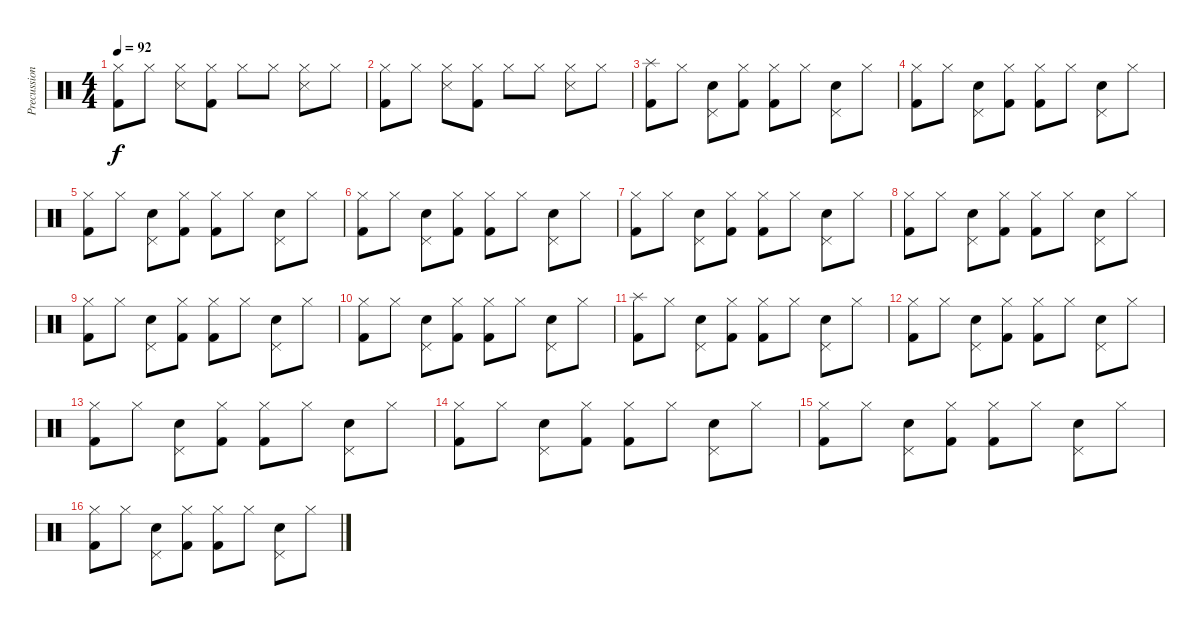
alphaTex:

\track ("Precussion" "Precussion") {instrument percussion}
\staff {score}
\articulation defaults
\ts (4 4)
\tempo 92
\clef neutral
\ks c
("Hi-Hat (closed)" "Kick (hit) 2").8{dy f} "Hi-Hat (closed)".8 ("Hi-Hat (closed)" "Snare (side stick) 3").8 ("Hi-Hat (closed)" "Kick (hit) 2").8 "Hi-Hat (closed)".8 "Hi-Hat (closed)".8 ("Hi-Hat (closed)" "Snare (side stick) 3").8 "Hi-Hat (closed)".8 |
("Hi-Hat (closed)" "Kick (hit) 2").8 "Hi-Hat (closed)".8 ("Hi-Hat (closed)" "Snare (side stick) 3").8 ("Hi-Hat (closed)" "Kick (hit) 2").8 "Hi-Hat (closed)".8 "Hi-Hat (closed)".8 ("Hi-Hat (closed)" "Snare (side stick) 3").8 "Hi-Hat (closed)".8 |
("Splash (hit)" "Kick (hit) 2").8 "Hi-Hat (closed)".8 ("Pedal Hi-Hat (hit)" "Snare (hit) 2").8 ("Hi-Hat (closed)" "Kick (hit) 2").8 ("Hi-Hat (closed)" "Kick (hit) 2").8 "Hi-Hat (closed)".8 ("Pedal Hi-Hat (hit)" "Snare (hit) 2").8 "Hi-Hat (closed)".8 |
("Hi-Hat (closed)" "Kick (hit) 2").8 "Hi-Hat (closed)".8 ("Pedal Hi-Hat (hit)" "Snare (hit) 2").8 ("Hi-Hat (closed)" "Kick (hit) 2").8 ("Hi-Hat (closed)" "Kick (hit) 2").8 "Hi-Hat (closed)".8 ("Pedal Hi-Hat (hit)" "Snare (hit) 2").8 "Hi-Hat (closed)".8 |
("Hi-Hat (closed)" "Kick (hit) 2").8 "Hi-Hat (closed)".8 ("Pedal Hi-Hat (hit)" "Snare (hit) 2").8 ("Hi-Hat (closed)" "Kick (hit) 2").8 ("Hi-Hat (closed)" "Kick (hit) 2").8 "Hi-Hat (closed)".8 ("Pedal Hi-Hat (hit)" "Snare (hit) 2").8 "Hi-Hat (closed)".8 |
("Hi-Hat (closed)" "Kick (hit) 2").8 "Hi-Hat (closed)".8 ("Pedal Hi-Hat (hit)" "Snare (hit) 2").8 ("Hi-Hat (closed)" "Kick (hit) 2").8 ("Hi-Hat (closed)" "Kick (hit) 2").8 "Hi-Hat (closed)".8 ("Pedal Hi-Hat (hit)" "Snare (hit) 2").8 "Hi-Hat (closed)".8 |
("Hi-Hat (closed)" "Kick (hit) 2").8 "Hi-Hat (closed)".8 ("Pedal Hi-Hat (hit)" "Snare (hit) 2").8 ("Hi-Hat (closed)" "Kick (hit) 2").8 ("Hi-Hat (closed)" "Kick (hit) 2").8 "Hi-Hat (closed)".8 ("Pedal Hi-Hat (hit)" "Snare (hit) 2").8 "Hi-Hat (closed)".8 |
("Hi-Hat (closed)" "Kick (hit) 2").8 "Hi-Hat (closed)".8 ("Pedal Hi-Hat (hit)" "Snare (hit) 2").8 ("Hi-Hat (closed)" "Kick (hit) 2").8 ("Hi-Hat (closed)" "Kick (hit) 2").8 "Hi-Hat (closed)".8 ("Pedal Hi-Hat (hit)" "Snare (hit) 2").8 "Hi-Hat (closed)".8 |
("Hi-Hat (closed)" "Kick (hit) 2").8 "Hi-Hat (closed)".8 ("Pedal Hi-Hat (hit)" "Snare (hit) 2").8 ("Hi-Hat (closed)" "Kick (hit) 2").8 ("Hi-Hat (closed)" "Kick (hit) 2").8 "Hi-Hat (closed)".8 ("Pedal Hi-Hat (hit)" "Snare (hit) 2").8 "Hi-Hat (closed)".8 |
("Hi-Hat (closed)" "Kick (hit) 2").8 "Hi-Hat (closed)".8 ("Pedal Hi-Hat (hit)" "Snare (hit) 2").8 ("Hi-Hat (closed)" "Kick (hit) 2").8 ("Hi-Hat (closed)" "Kick (hit) 2").8 "Hi-Hat (closed)".8 ("Pedal Hi-Hat (hit)" "Snare (hit) 2").8 "Hi-Hat (closed)".8 |
("Splash (hit)" "Kick (hit) 2").8 "Hi-Hat (closed)".8 ("Pedal Hi-Hat (hit)" "Snare (hit) 2").8 ("Hi-Hat (closed)" "Kick (hit) 2").8 ("Hi-Hat (closed)" "Kick (hit) 2").8 "Hi-Hat (closed)".8 ("Pedal Hi-Hat (hit)" "Snare (hit) 2").8 "Hi-Hat (closed)".8 |
("Hi-Hat (closed)" "Kick (hit) 2").8 "Hi-Hat (closed)".8 ("Pedal Hi-Hat (hit)" "Snare (hit) 2").8 ("Hi-Hat (closed)" "Kick (hit) 2").8 ("Hi-Hat (closed)" "Kick (hit) 2").8 "Hi-Hat (closed)".8 ("Pedal Hi-Hat (hit)" "Snare (hit) 2").8 "Hi-Hat (closed)".8 |
("Hi-Hat (closed)" "Kick (hit) 2").8 "Hi-Hat (closed)".8 ("Pedal Hi-Hat (hit)" "Snare (hit) 2").8 ("Hi-Hat (closed)" "Kick (hit) 2").8 ("Hi-Hat (closed)" "Kick (hit) 2").8 "Hi-Hat (closed)".8 ("Pedal Hi-Hat (hit)" "Snare (hit) 2").8 "Hi-Hat (closed)".8 |
("Hi-Hat (closed)" "Kick (hit) 2").8 "Hi-Hat (closed)".8 ("Pedal Hi-Hat (hit)" "Snare (hit) 2").8 ("Hi-Hat (closed)" "Kick (hit) 2").8 ("Hi-Hat (closed)" "Kick (hit) 2").8 "Hi-Hat (closed)".8 ("Pedal Hi-Hat (hit)" "Snare (hit) 2").8 "Hi-Hat (closed)".8 |
("Hi-Hat (closed)" "Kick (hit) 2").8 "Hi-Hat (closed)".8 ("Pedal Hi-Hat (hit)" "Snare (hit) 2").8 ("Hi-Hat (closed)" "Kick (hit) 2").8 ("Hi-Hat (closed)" "Kick (hit) 2").8 "Hi-Hat (closed)".8 ("Pedal Hi-Hat (hit)" "Snare (hit) 2").8 "Hi-Hat (closed)".8 |
("Hi-Hat (closed)" "Kick (hit) 2").8 "Hi-Hat (closed)".8 ("Pedal Hi-Hat (hit)" "Snare (hit) 2").8 ("Hi-Hat (closed)" "Kick (hit) 2").8 ("Hi-Hat (closed)" "Kick (hit) 2").8 "Hi-Hat (closed)".8 ("Pedal Hi-Hat (hit)" "Snare (hit) 2").8 "Hi-Hat (closed)".8
